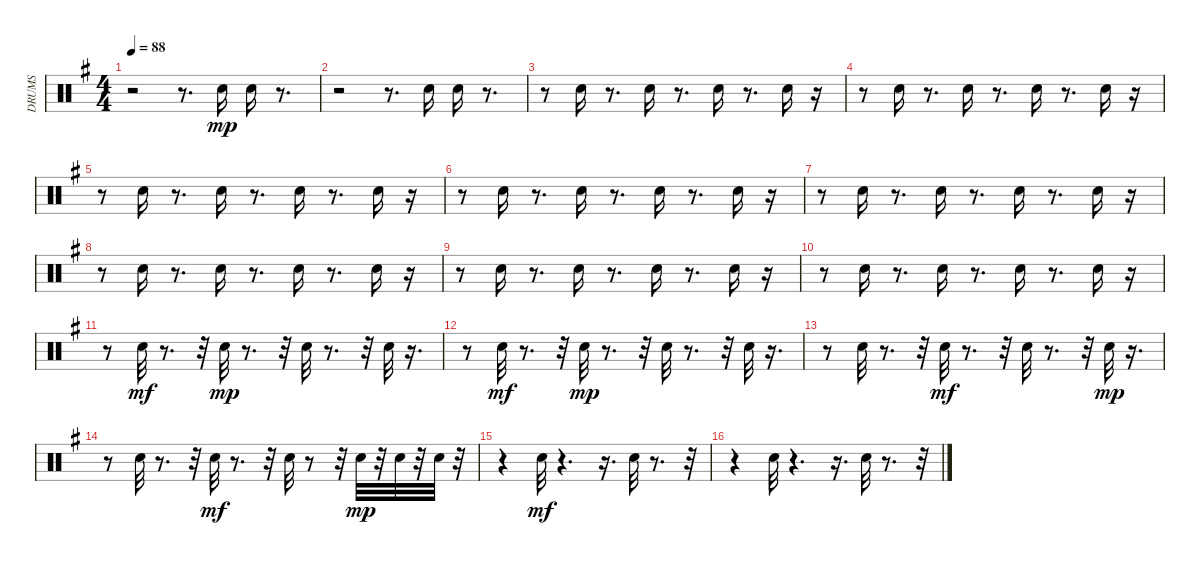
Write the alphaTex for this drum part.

\track ("DRUMS" "DRUMS") {instrument percussion}
\staff {score}
\articulation defaults
\ts (4 4)
\tempo 88
\clef neutral
\ks g
r.2{dy p} r.8{d} "Snare (hit) 2".16{dy mp} "Snare (hit) 2".16 r.8{d} |
r.2 r.8{d} "Snare (hit) 2".16 "Snare (hit) 2".16 r.8{d} |
r.8 "Snare (hit) 2".16 r.8{d} "Snare (hit) 2".16 r.8{d} "Snare (hit) 2".16 r.8{d} "Snare (hit) 2".16 r.16 |
r.8 "Snare (hit) 2".16 r.8{d} "Snare (hit) 2".16 r.8{d} "Snare (hit) 2".16 r.8{d} "Snare (hit) 2".16 r.16 |
r.8 "Snare (hit) 2".16 r.8{d} "Snare (hit) 2".16 r.8{d} "Snare (hit) 2".16 r.8{d} "Snare (hit) 2".16 r.16 |
r.8 "Snare (hit) 2".16 r.8{d} "Snare (hit) 2".16 r.8{d} "Snare (hit) 2".16 r.8{d} "Snare (hit) 2".16 r.16 |
r.8 "Snare (hit) 2".16 r.8{d} "Snare (hit) 2".16 r.8{d} "Snare (hit) 2".16 r.8{d} "Snare (hit) 2".16 r.16 |
r.8 "Snare (hit) 2".16 r.8{d} "Snare (hit) 2".16 r.8{d} "Snare (hit) 2".16 r.8{d} "Snare (hit) 2".16 r.16 |
r.8 "Snare (hit) 2".16 r.8{d} "Snare (hit) 2".16 r.8{d} "Snare (hit) 2".16 r.8{d} "Snare (hit) 2".16 r.16 |
r.8 "Snare (hit) 2".16 r.8{d} "Snare (hit) 2".16 r.8{d} "Snare (hit) 2".16 r.8{d} "Snare (hit) 2".16 r.16 |
r.8 "Snare (hit) 2".32{dy mf} r.8{d} r.32 "Snare (hit) 2".32{dy mp} r.8{d} r.32 "Snare (hit) 2".32 r.8{d} r.32 "Snare (hit) 2".32 r.16{d} |
r.8 "Snare (hit) 2".32{dy mf} r.8{d} r.32 "Snare (hit) 2".32{dy mp} r.8{d} r.32 "Snare (hit) 2".32 r.8{d} r.32 "Snare (hit) 2".32 r.16{d} |
r.8 "Snare (hit) 2".32 r.8{d} r.32 "Snare (hit) 2".32{dy mf} r.8{d} r.32 "Snare (hit) 2".32 r.8{d} r.32 "Snare (hit) 2".32{dy mp} r.16{d} |
r.8 "Snare (hit) 2".32 r.8{d} r.32 "Snare (hit) 2".32{dy mf} r.8{d} r.32 "Snare (hit) 2".32 r.8 r.32 "Snare (hit) 2".32{dy mp} r.32 "Snare (hit) 2".32 r.32 "Snare (hit) 2".32 r.32 |
r.4 "Snare (hit) 2".32{dy mf} r.4{d} r.16{d} "Snare (hit) 2".32 r.8{d} r.32 |
r.4 "Snare (hit) 2".32 r.4{d} r.16{d} "Snare (hit) 2".32 r.8{d} r.32
